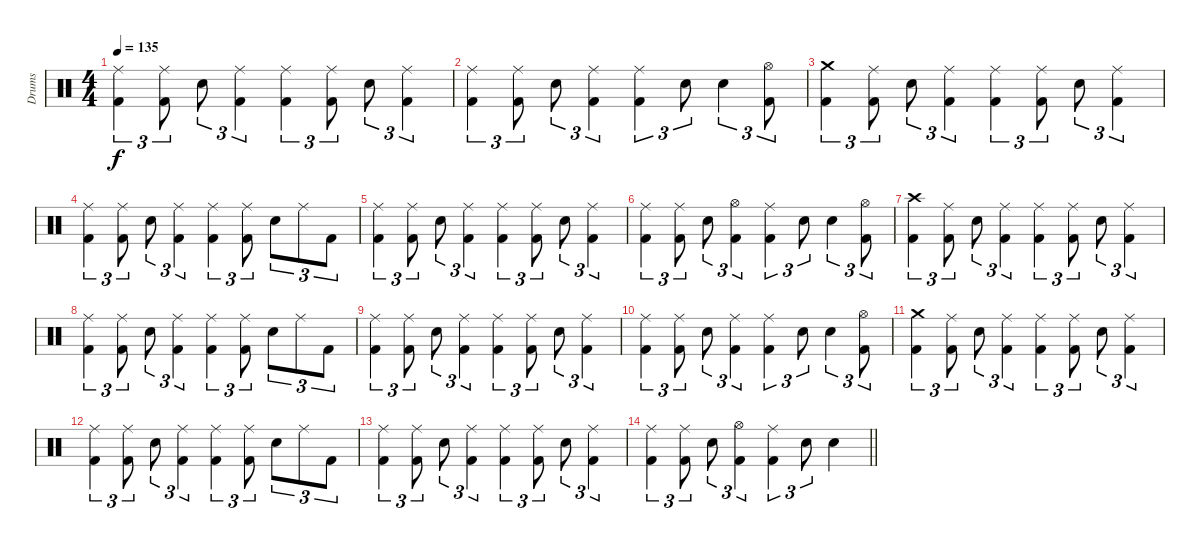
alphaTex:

\track ("Drums" "Drums") {instrument percussion}
\staff {score}
\articulation defaults
\ts (4 4)
\tempo 135
\clef neutral
\ks c
("Ride (middle)" "Kick (hit) 2").4{tu (3 2) dy f} ("Ride (middle)" "Kick (hit) 2").8{tu (3 2)} "Snare (hit) 2".8{tu (3 2)} ("Ride (middle)" "Kick (hit) 2").4{tu (3 2)} ("Ride (middle)" "Kick (hit) 2").4{tu (3 2)} ("Ride (middle)" "Kick (hit) 2").8{tu (3 2)} "Snare (hit) 2".8{tu (3 2)} ("Ride (middle)" "Kick (hit) 2").4{tu (3 2)} |
("Ride (middle)" "Kick (hit) 2").4{tu (3 2)} ("Ride (middle)" "Kick (hit) 2").8{tu (3 2)} "Snare (hit) 2".8{tu (3 2)} ("Ride (middle)" "Kick (hit) 2").4{tu (3 2)} ("Ride (middle)" "Kick (hit) 2").4{tu (3 2)} "Snare (hit) 2".8{tu (3 2)} "Snare (hit) 2".4{tu (3 2)} ("Hi-Hat (open)" "Kick (hit) 2").8{tu (3 2)} |
("Crash medium (hit)" "Kick (hit) 2").4{tu (3 2)} ("Ride (middle)" "Kick (hit) 2").8{tu (3 2)} "Snare (hit) 2".8{tu (3 2)} ("Ride (middle)" "Kick (hit) 2").4{tu (3 2)} ("Ride (middle)" "Kick (hit) 2").4{tu (3 2)} ("Ride (middle)" "Kick (hit) 2").8{tu (3 2)} "Snare (hit) 2".8{tu (3 2)} ("Ride (middle)" "Kick (hit) 2").4{tu (3 2)} |
("Ride (middle)" "Kick (hit) 2").4{tu (3 2)} ("Ride (middle)" "Kick (hit) 2").8{tu (3 2)} "Snare (hit) 2".8{tu (3 2)} ("Ride (middle)" "Kick (hit) 2").4{tu (3 2)} ("Ride (middle)" "Kick (hit) 2").4{tu (3 2)} ("Ride (middle)" "Kick (hit) 2").8{tu (3 2)} "Snare (hit) 2".8{tu (3 2)} "Ride (middle)".8{tu (3 2)} "Kick (hit) 2".8{tu (3 2)} |
("Ride (middle)" "Kick (hit) 2").4{tu (3 2)} ("Ride (middle)" "Kick (hit) 2").8{tu (3 2)} "Snare (hit) 2".8{tu (3 2)} ("Ride (middle)" "Kick (hit) 2").4{tu (3 2)} ("Ride (middle)" "Kick (hit) 2").4{tu (3 2)} ("Ride (middle)" "Kick (hit) 2").8{tu (3 2)} "Snare (hit) 2".8{tu (3 2)} ("Ride (middle)" "Kick (hit) 2").4{tu (3 2)} |
("Ride (middle)" "Kick (hit) 2").4{tu (3 2)} ("Ride (middle)" "Kick (hit) 2").8{tu (3 2)} "Snare (hit) 2".8{tu (3 2)} ("Hi-Hat (open)" "Kick (hit) 2").4{tu (3 2)} ("Ride (middle)" "Kick (hit) 2").4{tu (3 2)} "Snare (hit) 2".8{tu (3 2)} "Snare (hit) 2".4{tu (3 2)} ("Hi-Hat (open)" "Kick (hit) 2").8{tu (3 2)} |
("Crash high (hit)" "Kick (hit) 2").4{tu (3 2)} ("Ride (middle)" "Kick (hit) 2").8{tu (3 2)} "Snare (hit) 2".8{tu (3 2)} ("Ride (middle)" "Kick (hit) 2").4{tu (3 2)} ("Ride (middle)" "Kick (hit) 2").4{tu (3 2)} ("Ride (middle)" "Kick (hit) 2").8{tu (3 2)} "Snare (hit) 2".8{tu (3 2)} ("Ride (middle)" "Kick (hit) 2").4{tu (3 2)} |
("Ride (middle)" "Kick (hit) 2").4{tu (3 2)} ("Ride (middle)" "Kick (hit) 2").8{tu (3 2)} "Snare (hit) 2".8{tu (3 2)} ("Ride (middle)" "Kick (hit) 2").4{tu (3 2)} ("Ride (middle)" "Kick (hit) 2").4{tu (3 2)} ("Ride (middle)" "Kick (hit) 2").8{tu (3 2)} "Snare (hit) 2".8{tu (3 2)} "Ride (middle)".8{tu (3 2)} "Kick (hit) 2".8{tu (3 2)} |
("Ride (middle)" "Kick (hit) 2").4{tu (3 2)} ("Ride (middle)" "Kick (hit) 2").8{tu (3 2)} "Snare (hit) 2".8{tu (3 2)} ("Ride (middle)" "Kick (hit) 2").4{tu (3 2)} ("Ride (middle)" "Kick (hit) 2").4{tu (3 2)} ("Ride (middle)" "Kick (hit) 2").8{tu (3 2)} "Snare (hit) 2".8{tu (3 2)} ("Ride (middle)" "Kick (hit) 2").4{tu (3 2)} |
("Ride (middle)" "Kick (hit) 2").4{tu (3 2)} ("Ride (middle)" "Kick (hit) 2").8{tu (3 2)} "Snare (hit) 2".8{tu (3 2)} ("Ride (middle)" "Kick (hit) 2").4{tu (3 2)} ("Ride (middle)" "Kick (hit) 2").4{tu (3 2)} "Snare (hit) 2".8{tu (3 2)} "Snare (hit) 2".4{tu (3 2)} ("Hi-Hat (open)" "Kick (hit) 2").8{tu (3 2)} |
("Crash medium (hit)" "Kick (hit) 2").4{tu (3 2)} ("Ride (middle)" "Kick (hit) 2").8{tu (3 2)} "Snare (hit) 2".8{tu (3 2)} ("Ride (middle)" "Kick (hit) 2").4{tu (3 2)} ("Ride (middle)" "Kick (hit) 2").4{tu (3 2)} ("Ride (middle)" "Kick (hit) 2").8{tu (3 2)} "Snare (hit) 2".8{tu (3 2)} ("Ride (middle)" "Kick (hit) 2").4{tu (3 2)} |
("Ride (middle)" "Kick (hit) 2").4{tu (3 2)} ("Ride (middle)" "Kick (hit) 2").8{tu (3 2)} "Snare (hit) 2".8{tu (3 2)} ("Ride (middle)" "Kick (hit) 2").4{tu (3 2)} ("Ride (middle)" "Kick (hit) 2").4{tu (3 2)} ("Ride (middle)" "Kick (hit) 2").8{tu (3 2)} "Snare (hit) 2".8{tu (3 2)} "Ride (middle)".8{tu (3 2)} "Kick (hit) 2".8{tu (3 2)} |
("Ride (middle)" "Kick (hit) 2").4{tu (3 2)} ("Ride (middle)" "Kick (hit) 2").8{tu (3 2)} "Snare (hit) 2".8{tu (3 2)} ("Ride (middle)" "Kick (hit) 2").4{tu (3 2)} ("Ride (middle)" "Kick (hit) 2").4{tu (3 2)} ("Ride (middle)" "Kick (hit) 2").8{tu (3 2)} "Snare (hit) 2".8{tu (3 2)} ("Ride (middle)" "Kick (hit) 2").4{tu (3 2)} |
\barLineRight lightlight
("Ride (middle)" "Kick (hit) 2").4{tu (3 2)} ("Ride (middle)" "Kick (hit) 2").8{tu (3 2)} "Snare (hit) 2".8{tu (3 2)} ("Hi-Hat (open)" "Kick (hit) 2").4{tu (3 2)} ("Ride (middle)" "Kick (hit) 2").4{tu (3 2)} "Snare (hit) 2".8{tu (3 2)} "Snare (hit) 2".4
